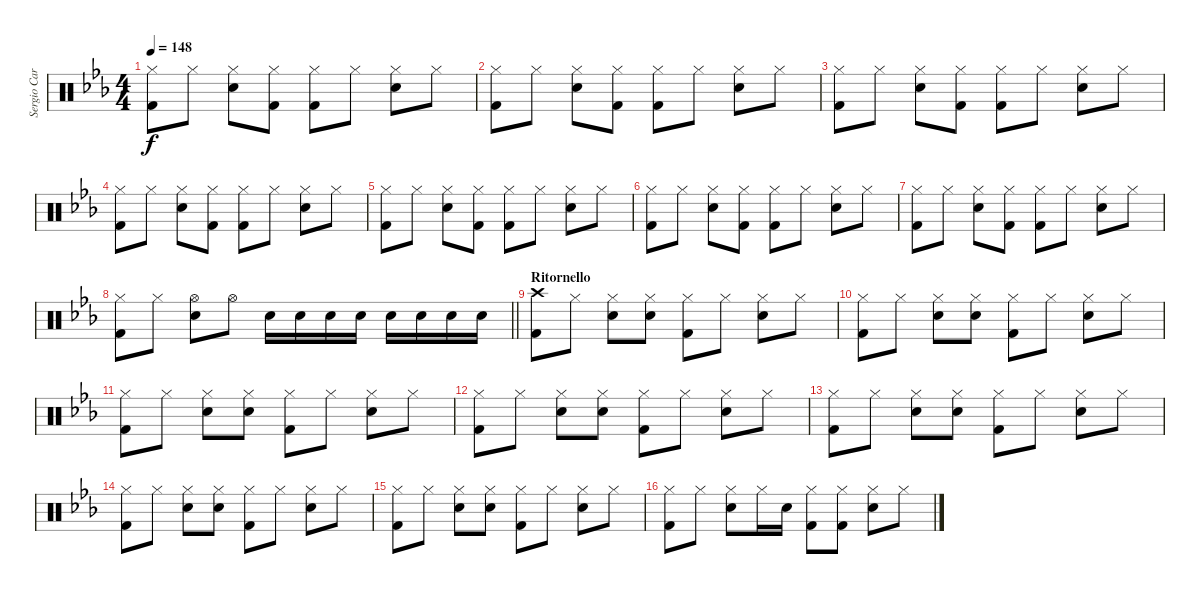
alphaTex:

\track ("Sergio Carnevale [Batteria]" "Sergio Car") {instrument percussion}
\staff {score}
\articulation defaults
\ts (4 4)
\tempo 148
\clef neutral
\ks cminor
("Hi-Hat (closed)" "Kick (hit) 2").8{dy f} "Hi-Hat (closed)".8 ("Hi-Hat (closed)" "Snare (hit) 2").8 ("Hi-Hat (closed)" "Kick (hit) 2").8 ("Hi-Hat (closed)" "Kick (hit) 2").8 "Hi-Hat (closed)".8 ("Hi-Hat (closed)" "Snare (hit) 2").8 "Hi-Hat (closed)".8 |
("Hi-Hat (closed)" "Kick (hit) 2").8 "Hi-Hat (closed)".8 ("Hi-Hat (closed)" "Snare (hit) 2").8 ("Hi-Hat (closed)" "Kick (hit) 2").8 ("Hi-Hat (closed)" "Kick (hit) 2").8 "Hi-Hat (closed)".8 ("Hi-Hat (closed)" "Snare (hit) 2").8 "Hi-Hat (closed)".8 |
("Hi-Hat (closed)" "Kick (hit) 2").8 "Hi-Hat (closed)".8 ("Hi-Hat (closed)" "Snare (hit) 2").8 ("Hi-Hat (closed)" "Kick (hit) 2").8 ("Hi-Hat (closed)" "Kick (hit) 2").8 "Hi-Hat (closed)".8 ("Hi-Hat (closed)" "Snare (hit) 2").8 "Hi-Hat (closed)".8 |
("Hi-Hat (closed)" "Kick (hit) 2").8 "Hi-Hat (closed)".8 ("Hi-Hat (closed)" "Snare (hit) 2").8 ("Hi-Hat (closed)" "Kick (hit) 2").8 ("Hi-Hat (closed)" "Kick (hit) 2").8 "Hi-Hat (closed)".8 ("Hi-Hat (closed)" "Snare (hit) 2").8 "Hi-Hat (closed)".8 |
("Hi-Hat (closed)" "Kick (hit) 2").8 "Hi-Hat (closed)".8 ("Hi-Hat (closed)" "Snare (hit) 2").8 ("Hi-Hat (closed)" "Kick (hit) 2").8 ("Hi-Hat (closed)" "Kick (hit) 2").8 "Hi-Hat (closed)".8 ("Hi-Hat (closed)" "Snare (hit) 2").8 "Hi-Hat (closed)".8 |
("Hi-Hat (closed)" "Kick (hit) 2").8 "Hi-Hat (closed)".8 ("Hi-Hat (closed)" "Snare (hit) 2").8 ("Hi-Hat (closed)" "Kick (hit) 2").8 ("Hi-Hat (closed)" "Kick (hit) 2").8 "Hi-Hat (closed)".8 ("Hi-Hat (closed)" "Snare (hit) 2").8 "Hi-Hat (closed)".8 |
("Hi-Hat (closed)" "Kick (hit) 2").8 "Hi-Hat (closed)".8 ("Hi-Hat (closed)" "Snare (hit) 2").8 ("Hi-Hat (closed)" "Kick (hit) 2").8 ("Hi-Hat (closed)" "Kick (hit) 2").8 "Hi-Hat (closed)".8 ("Hi-Hat (closed)" "Snare (hit) 2").8 "Hi-Hat (closed)".8 |
\barLineRight lightlight
("Hi-Hat (closed)" "Kick (hit) 2").8 "Hi-Hat (closed)".8 ("Hi-Hat (open)" "Snare (hit) 2").8 "Hi-Hat (open)".8 "Snare (hit) 2".16 "Snare (hit) 2".16 "Snare (hit) 2".16 "Snare (hit) 2".16 "Snare (hit) 2".16 "Snare (hit) 2".16 "Snare (hit) 2".16 "Snare (hit) 2".16 |
\section ("" "Ritornello")
("Crash high (hit)" "Kick (hit) 2").8 "Hi-Hat (closed)".8 ("Hi-Hat (closed)" "Snare (hit) 2").8 ("Hi-Hat (closed)" "Snare (hit) 2").8 ("Hi-Hat (closed)" "Kick (hit) 2").8 "Hi-Hat (closed)".8 ("Hi-Hat (closed)" "Snare (hit) 2").8 "Hi-Hat (closed)".8 |
("Hi-Hat (closed)" "Kick (hit) 2").8 "Hi-Hat (closed)".8 ("Hi-Hat (closed)" "Snare (hit) 2").8 ("Hi-Hat (closed)" "Snare (hit) 2").8 ("Hi-Hat (closed)" "Kick (hit) 2").8 "Hi-Hat (closed)".8 ("Hi-Hat (closed)" "Snare (hit) 2").8 "Hi-Hat (closed)".8 |
("Hi-Hat (closed)" "Kick (hit) 2").8 "Hi-Hat (closed)".8 ("Hi-Hat (closed)" "Snare (hit) 2").8 ("Hi-Hat (closed)" "Snare (hit) 2").8 ("Hi-Hat (closed)" "Kick (hit) 2").8 "Hi-Hat (closed)".8 ("Hi-Hat (closed)" "Snare (hit) 2").8 "Hi-Hat (closed)".8 |
("Hi-Hat (closed)" "Kick (hit) 2").8 "Hi-Hat (closed)".8 ("Hi-Hat (closed)" "Snare (hit) 2").8 ("Hi-Hat (closed)" "Snare (hit) 2").8 ("Hi-Hat (closed)" "Kick (hit) 2").8 "Hi-Hat (closed)".8 ("Hi-Hat (closed)" "Snare (hit) 2").8 "Hi-Hat (closed)".8 |
("Hi-Hat (closed)" "Kick (hit) 2").8 "Hi-Hat (closed)".8 ("Hi-Hat (closed)" "Snare (hit) 2").8 ("Hi-Hat (closed)" "Snare (hit) 2").8 ("Hi-Hat (closed)" "Kick (hit) 2").8 "Hi-Hat (closed)".8 ("Hi-Hat (closed)" "Snare (hit) 2").8 "Hi-Hat (closed)".8 |
("Hi-Hat (closed)" "Kick (hit) 2").8 "Hi-Hat (closed)".8 ("Hi-Hat (closed)" "Snare (hit) 2").8 ("Hi-Hat (closed)" "Snare (hit) 2").8 ("Hi-Hat (closed)" "Kick (hit) 2").8 "Hi-Hat (closed)".8 ("Hi-Hat (closed)" "Snare (hit) 2").8 "Hi-Hat (closed)".8 |
("Hi-Hat (closed)" "Kick (hit) 2").8 "Hi-Hat (closed)".8 ("Hi-Hat (closed)" "Snare (hit) 2").8 ("Hi-Hat (closed)" "Snare (hit) 2").8 ("Hi-Hat (closed)" "Kick (hit) 2").8 "Hi-Hat (closed)".8 ("Hi-Hat (closed)" "Snare (hit) 2").8 "Hi-Hat (closed)".8 |
("Hi-Hat (closed)" "Kick (hit) 2").8 "Hi-Hat (closed)".8 ("Hi-Hat (closed)" "Snare (hit) 2").8 "Hi-Hat (closed)".16 "Snare (hit) 2".16 ("Hi-Hat (closed)" "Kick (hit) 2").8 ("Hi-Hat (closed)" "Kick (hit) 2").8 ("Hi-Hat (closed)" "Snare (hit) 2").8 "Hi-Hat (closed)".8
